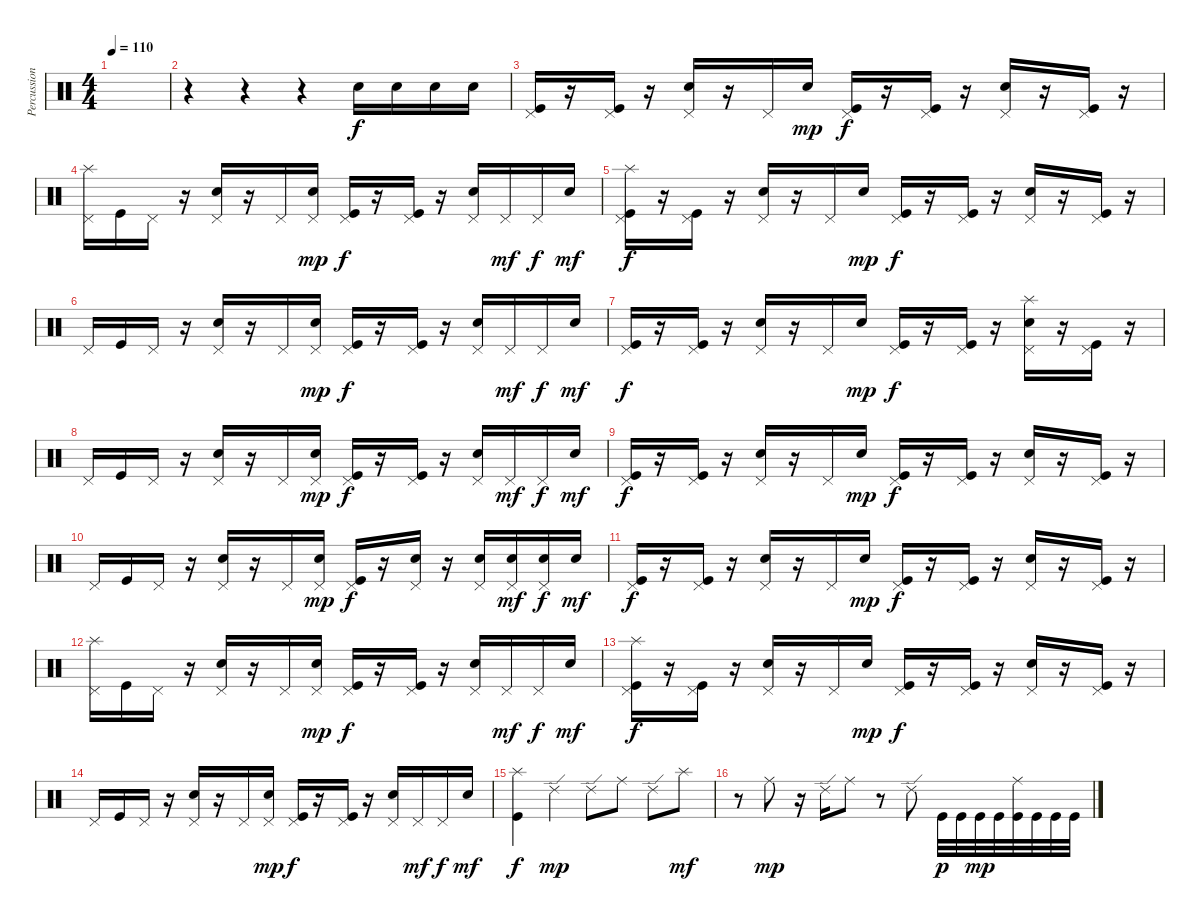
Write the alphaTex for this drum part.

\track ("Percussion" "Percussion") {instrument percussion}
\staff {score}
\articulation defaults
\ts (4 4)
\tempo 110
\clef neutral
\ks c
|
r.4 r.4 r.4 "Snare (hit) 2".16 "Snare (hit) 2".16 "Snare (hit) 2".16 "Snare (hit) 2".16 |
("Pedal Hi-Hat (hit)" "Kick (hit)").16 r.16 ("Pedal Hi-Hat (hit)" "Kick (hit)").16 r.16 ("Pedal Hi-Hat (hit)" "Snare (hit) 2").16 r.16 "Pedal Hi-Hat (hit)".16 "Snare (hit) 2".16{dy mp} ("Pedal Hi-Hat (hit)" "Kick (hit)").16{dy f} r.16 ("Pedal Hi-Hat (hit)" "Kick (hit)").16 r.16 ("Pedal Hi-Hat (hit)" "Snare (hit) 2").16 r.16 ("Pedal Hi-Hat (hit)" "Kick (hit)").16 r.16 |
("Pedal Hi-Hat (hit)" "Splash (hit)").16 "Kick (hit)".16 "Pedal Hi-Hat (hit)".16 r.16 ("Pedal Hi-Hat (hit)" "Snare (hit) 2").16 r.16 "Pedal Hi-Hat (hit)".16 ("Pedal Hi-Hat (hit)" "Snare (hit) 2").16{dy mp} ("Pedal Hi-Hat (hit)" "Kick (hit)").16{dy f} r.16 ("Pedal Hi-Hat (hit)" "Kick (hit)").16 r.16 ("Pedal Hi-Hat (hit)" "Snare (hit) 2").16 "Pedal Hi-Hat (hit)".16{dy mf} "Pedal Hi-Hat (hit)".16{dy f} "Snare (hit) 2".16{dy mf} |
("Pedal Hi-Hat (hit)" "Splash (hit)" "Kick (hit)").16{dy f} r.16 ("Pedal Hi-Hat (hit)" "Kick (hit)").16 r.16 ("Pedal Hi-Hat (hit)" "Snare (hit) 2").16 r.16 "Pedal Hi-Hat (hit)".16 "Snare (hit) 2".16{dy mp} ("Pedal Hi-Hat (hit)" "Kick (hit)").16{dy f} r.16 ("Pedal Hi-Hat (hit)" "Kick (hit)").16 r.16 ("Pedal Hi-Hat (hit)" "Snare (hit) 2").16 r.16 ("Pedal Hi-Hat (hit)" "Kick (hit)").16 r.16 |
"Pedal Hi-Hat (hit)".16 "Kick (hit)".16 "Pedal Hi-Hat (hit)".16 r.16 ("Pedal Hi-Hat (hit)" "Snare (hit) 2").16 r.16 "Pedal Hi-Hat (hit)".16 ("Pedal Hi-Hat (hit)" "Snare (hit) 2").16{dy mp} ("Pedal Hi-Hat (hit)" "Kick (hit)").16{dy f} r.16 ("Pedal Hi-Hat (hit)" "Kick (hit)").16 r.16 ("Pedal Hi-Hat (hit)" "Snare (hit) 2").16 "Pedal Hi-Hat (hit)".16{dy mf} "Pedal Hi-Hat (hit)".16{dy f} "Snare (hit) 2".16{dy mf} |
("Pedal Hi-Hat (hit)" "Kick (hit)").16{dy f} r.16 ("Pedal Hi-Hat (hit)" "Kick (hit)").16 r.16 ("Pedal Hi-Hat (hit)" "Snare (hit) 2").16 r.16 "Pedal Hi-Hat (hit)".16 "Snare (hit) 2".16{dy mp} ("Pedal Hi-Hat (hit)" "Kick (hit)").16{dy f} r.16 ("Pedal Hi-Hat (hit)" "Kick (hit)").16 r.16 ("Pedal Hi-Hat (hit)" "Splash (hit)" "Snare (hit) 2").16 r.16 ("Pedal Hi-Hat (hit)" "Kick (hit)").16 r.16 |
"Pedal Hi-Hat (hit)".16 "Kick (hit)".16 "Pedal Hi-Hat (hit)".16 r.16 ("Pedal Hi-Hat (hit)" "Snare (hit) 2").16 r.16 "Pedal Hi-Hat (hit)".16 ("Pedal Hi-Hat (hit)" "Snare (hit) 2").16{dy mp} ("Pedal Hi-Hat (hit)" "Kick (hit)").16{dy f} r.16 ("Pedal Hi-Hat (hit)" "Kick (hit)").16 r.16 ("Pedal Hi-Hat (hit)" "Snare (hit) 2").16 "Pedal Hi-Hat (hit)".16{dy mf} "Pedal Hi-Hat (hit)".16{dy f} "Snare (hit) 2".16{dy mf} |
("Pedal Hi-Hat (hit)" "Kick (hit)").16{dy f} r.16 ("Pedal Hi-Hat (hit)" "Kick (hit)").16 r.16 ("Pedal Hi-Hat (hit)" "Snare (hit) 2").16 r.16 "Pedal Hi-Hat (hit)".16 "Snare (hit) 2".16{dy mp} ("Pedal Hi-Hat (hit)" "Kick (hit)").16{dy f} r.16 ("Pedal Hi-Hat (hit)" "Kick (hit)").16 r.16 ("Pedal Hi-Hat (hit)" "Snare (hit) 2").16 r.16 ("Pedal Hi-Hat (hit)" "Kick (hit)").16 r.16 |
"Pedal Hi-Hat (hit)".16 "Kick (hit)".16 "Pedal Hi-Hat (hit)".16 r.16 ("Pedal Hi-Hat (hit)" "Snare (hit) 2").16 r.16 "Pedal Hi-Hat (hit)".16 ("Pedal Hi-Hat (hit)" "Snare (hit) 2").16{dy mp} ("Pedal Hi-Hat (hit)" "Kick (hit)").16{dy f} r.16 ("Pedal Hi-Hat (hit)" "Snare (hit) 2").16 r.16 ("Pedal Hi-Hat (hit)" "Snare (hit) 2").16 ("Pedal Hi-Hat (hit)" "Snare (hit) 2").16{dy mf} ("Pedal Hi-Hat (hit)" "Snare (hit) 2").16{dy f} "Snare (hit) 2".16{dy mf} |
("Pedal Hi-Hat (hit)" "Kick (hit)").16{dy f} r.16 ("Pedal Hi-Hat (hit)" "Kick (hit)").16 r.16 ("Pedal Hi-Hat (hit)" "Snare (hit) 2").16 r.16 "Pedal Hi-Hat (hit)".16 "Snare (hit) 2".16{dy mp} ("Pedal Hi-Hat (hit)" "Kick (hit)").16{dy f} r.16 ("Pedal Hi-Hat (hit)" "Kick (hit)").16 r.16 ("Pedal Hi-Hat (hit)" "Snare (hit) 2").16 r.16 ("Pedal Hi-Hat (hit)" "Kick (hit)").16 r.16 |
("Pedal Hi-Hat (hit)" "Splash (hit)").16 "Kick (hit)".16 "Pedal Hi-Hat (hit)".16 r.16 ("Pedal Hi-Hat (hit)" "Snare (hit) 2").16 r.16 "Pedal Hi-Hat (hit)".16 ("Pedal Hi-Hat (hit)" "Snare (hit) 2").16{dy mp} ("Pedal Hi-Hat (hit)" "Kick (hit)").16{dy f} r.16 ("Pedal Hi-Hat (hit)" "Kick (hit)").16 r.16 ("Pedal Hi-Hat (hit)" "Snare (hit) 2").16 "Pedal Hi-Hat (hit)".16{dy mf} "Pedal Hi-Hat (hit)".16{dy f} "Snare (hit) 2".16{dy mf} |
("Pedal Hi-Hat (hit)" "Splash (hit)" "Kick (hit)").16{dy f} r.16 ("Pedal Hi-Hat (hit)" "Kick (hit)").16 r.16 ("Pedal Hi-Hat (hit)" "Snare (hit) 2").16 r.16 "Pedal Hi-Hat (hit)".16 "Snare (hit) 2".16{dy mp} ("Pedal Hi-Hat (hit)" "Kick (hit)").16{dy f} r.16 ("Pedal Hi-Hat (hit)" "Kick (hit)").16 r.16 ("Pedal Hi-Hat (hit)" "Snare (hit) 2").16 r.16 ("Pedal Hi-Hat (hit)" "Kick (hit)").16 r.16 |
"Pedal Hi-Hat (hit)".16 "Kick (hit)".16 "Pedal Hi-Hat (hit)".16 r.16 ("Pedal Hi-Hat (hit)" "Snare (hit) 2").16 r.16 "Pedal Hi-Hat (hit)".16 ("Pedal Hi-Hat (hit)" "Snare (hit) 2").16{dy mp} ("Pedal Hi-Hat (hit)" "Kick (hit)").16{dy f} r.16 ("Pedal Hi-Hat (hit)" "Kick (hit)").16 r.16 ("Pedal Hi-Hat (hit)" "Snare (hit) 2").16 "Pedal Hi-Hat (hit)".16{dy mf} "Pedal Hi-Hat (hit)".16{dy f} "Snare (hit) 2".16{dy mf} |
("Splash (hit)" "Kick (hit)").4{dy f} "Ride (edge) 2".4{dy mp} "Ride (edge) 2".8 "Ride (middle)".8 "Ride (edge) 2".8 "Splash (hit)".8{dy mf} |
r.8 "Ride (middle)".8{dy mp} r.16 "Ride (edge) 2".16 "Ride (middle)".8 r.8 "Ride (edge) 2".8 "Kick (hit)".32{dy p} "Kick (hit)".32 "Kick (hit)".32{dy mp} "Kick (hit)".32 ("Ride (middle)" "Kick (hit)").32 "Kick (hit)".32 "Kick (hit)".32 "Kick (hit)".32
